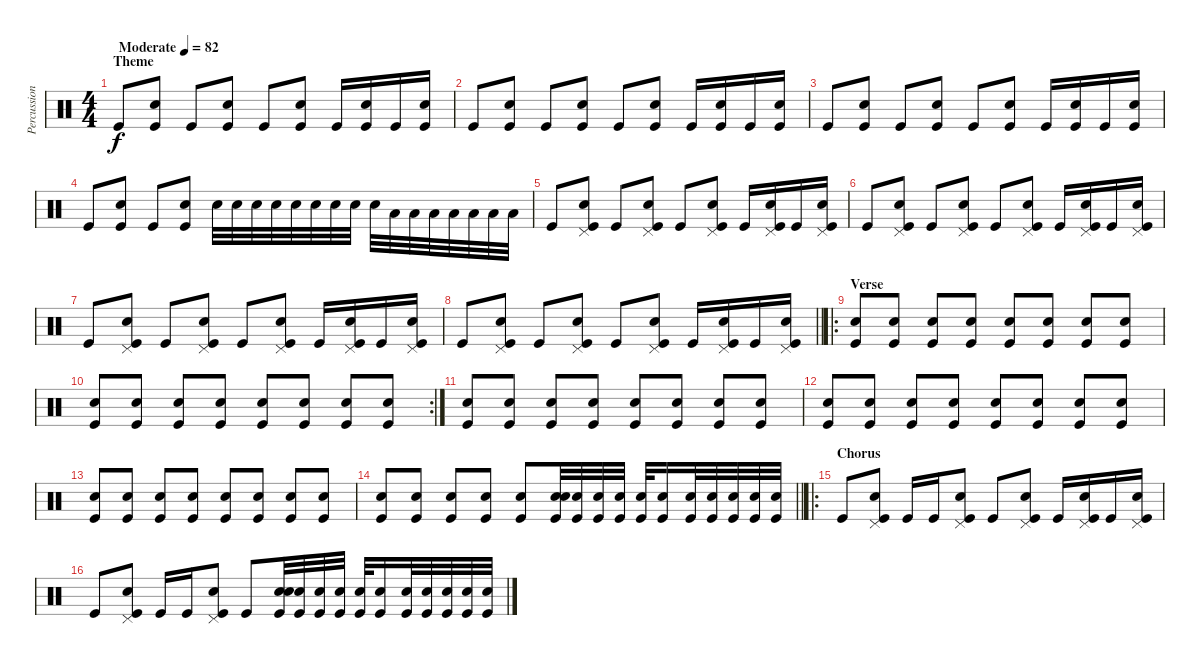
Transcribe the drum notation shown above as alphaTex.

\track ("Percussion" "Percussion") {instrument percussion}
\staff {score}
\articulation defaults
\ts (4 4)
\section ("" "Theme")
\tempo (82 "Moderate")
\clef neutral
\ks c "Kick (hit)".8{dy f}
("Kick (hit)" "Snare (hit) 2").8 "Kick (hit)".8 ("Kick (hit)" "Snare (hit) 2").8 "Kick (hit)".8 ("Kick (hit)" "Snare (hit) 2").8 "Kick (hit)".16 ("Kick (hit)" "Snare (hit) 2").16 "Kick (hit)".16 ("Kick (hit)" "Snare (hit) 2").16 |
"Kick (hit)".8 ("Kick (hit)" "Snare (hit) 2").8 "Kick (hit)".8 ("Kick (hit)" "Snare (hit) 2").8 "Kick (hit)".8 ("Kick (hit)" "Snare (hit) 2").8 "Kick (hit)".16 ("Kick (hit)" "Snare (hit) 2").16 "Kick (hit)".16 ("Kick (hit)" "Snare (hit) 2").16 |
"Kick (hit)".8 ("Kick (hit)" "Snare (hit) 2").8 "Kick (hit)".8 ("Kick (hit)" "Snare (hit) 2").8 "Kick (hit)".8 ("Kick (hit)" "Snare (hit) 2").8 "Kick (hit)".16 ("Kick (hit)" "Snare (hit) 2").16 "Kick (hit)".16 ("Kick (hit)" "Snare (hit) 2").16 |
"Kick (hit)".8 ("Kick (hit)" "Snare (hit) 2").8 "Kick (hit)".8 ("Kick (hit)" "Snare (hit) 2").8 "Snare (hit) 2".32 "Snare (hit) 2".32 "Snare (hit) 2".32 "Snare (hit) 2".32 "Snare (hit) 2".32 "Snare (hit) 2".32 "Snare (hit) 2".32 "Snare (hit) 2".32 "Snare (hit) 2".32 "Low Tom (hit)".32 "Low Tom (hit)".32 "Low Tom (hit)".32 "Low Tom (hit)".32 "Low Tom (hit)".32 "Low Tom (hit)".32 "Low Tom (hit)".32 |
"Kick (hit)".8 ("Pedal Hi-Hat (hit)" "Kick (hit)" "Snare (hit) 2").8 "Kick (hit)".8 ("Pedal Hi-Hat (hit)" "Kick (hit)" "Snare (hit) 2").8 "Kick (hit)".8 ("Pedal Hi-Hat (hit)" "Kick (hit)" "Snare (hit) 2").8 "Kick (hit)".16 ("Pedal Hi-Hat (hit)" "Kick (hit)" "Snare (hit) 2").16 "Kick (hit)".16 ("Pedal Hi-Hat (hit)" "Kick (hit)" "Snare (hit) 2").16 |
"Kick (hit)".8 ("Pedal Hi-Hat (hit)" "Kick (hit)" "Snare (hit) 2").8 "Kick (hit)".8 ("Pedal Hi-Hat (hit)" "Kick (hit)" "Snare (hit) 2").8 "Kick (hit)".8 ("Pedal Hi-Hat (hit)" "Kick (hit)" "Snare (hit) 2").8 "Kick (hit)".16 ("Pedal Hi-Hat (hit)" "Kick (hit)" "Snare (hit) 2").16 "Kick (hit)".16 ("Pedal Hi-Hat (hit)" "Kick (hit)" "Snare (hit) 2").16 |
"Kick (hit)".8 ("Pedal Hi-Hat (hit)" "Kick (hit)" "Snare (hit) 2").8 "Kick (hit)".8 ("Pedal Hi-Hat (hit)" "Kick (hit)" "Snare (hit) 2").8 "Kick (hit)".8 ("Pedal Hi-Hat (hit)" "Kick (hit)" "Snare (hit) 2").8 "Kick (hit)".16 ("Pedal Hi-Hat (hit)" "Kick (hit)" "Snare (hit) 2").16 "Kick (hit)".16 ("Pedal Hi-Hat (hit)" "Kick (hit)" "Snare (hit) 2").16 |
\barLineRight lightlight "Kick (hit)".8
("Pedal Hi-Hat (hit)" "Kick (hit)" "Snare (hit) 2").8 "Kick (hit)".8 ("Pedal Hi-Hat (hit)" "Kick (hit)" "Snare (hit) 2").8 "Kick (hit)".8 ("Pedal Hi-Hat (hit)" "Kick (hit)" "Snare (hit) 2").8 "Kick (hit)".16 ("Pedal Hi-Hat (hit)" "Kick (hit)" "Snare (hit) 2").16 "Kick (hit)".16 ("Pedal Hi-Hat (hit)" "Kick (hit)" "Snare (hit) 2").16 |
\ro
\section ("" "Verse")
("Kick (hit)" "Snare (hit) 2").8 ("Kick (hit)" "Snare (hit) 2").8 ("Kick (hit)" "Snare (hit) 2").8 ("Kick (hit)" "Snare (hit) 2").8 ("Kick (hit)" "Snare (hit) 2").8 ("Kick (hit)" "Snare (hit) 2").8 ("Kick (hit)" "Snare (hit) 2").8 ("Kick (hit)" "Snare (hit) 2").8 |
\rc 2
("Kick (hit)" "Snare (hit) 2").8 ("Kick (hit)" "Snare (hit) 2").8 ("Kick (hit)" "Snare (hit) 2").8 ("Kick (hit)" "Snare (hit) 2").8 ("Kick (hit)" "Snare (hit) 2").8 ("Kick (hit)" "Snare (hit) 2").8 ("Kick (hit)" "Snare (hit) 2").8 ("Kick (hit)" "Snare (hit) 2").8 |
("Kick (hit)" "Snare (hit) 2").8 ("Kick (hit)" "Snare (hit) 2").8 ("Kick (hit)" "Snare (hit) 2").8 ("Kick (hit)" "Snare (hit) 2").8 ("Kick (hit)" "Snare (hit) 2").8 ("Kick (hit)" "Snare (hit) 2").8 ("Kick (hit)" "Snare (hit) 2").8 ("Kick (hit)" "Snare (hit) 2").8 |
("Kick (hit)" "Snare (hit) 2").8 ("Kick (hit)" "Snare (hit) 2").8 ("Kick (hit)" "Snare (hit) 2").8 ("Kick (hit)" "Snare (hit) 2").8 ("Kick (hit)" "Snare (hit) 2").8 ("Kick (hit)" "Snare (hit) 2").8 ("Kick (hit)" "Snare (hit) 2").8 ("Kick (hit)" "Snare (hit) 2").8 |
("Kick (hit)" "Snare (hit) 2").8 ("Kick (hit)" "Snare (hit) 2").8 ("Kick (hit)" "Snare (hit) 2").8 ("Kick (hit)" "Snare (hit) 2").8 ("Kick (hit)" "Snare (hit) 2").8 ("Kick (hit)" "Snare (hit) 2").8 ("Kick (hit)" "Snare (hit) 2").8 ("Kick (hit)" "Snare (hit) 2").8 |
\barLineRight lightlight
("Kick (hit)" "Snare (hit) 2").8 ("Kick (hit)" "Snare (hit) 2").8 ("Kick (hit)" "Snare (hit) 2").8 ("Kick (hit)" "Snare (hit) 2").8 ("Kick (hit)" "Snare (hit) 2").8 ("Snare (hit) 2" "Kick (hit)" "Snare (hit) 2").32{volume 16} ("Snare (hit) 2" "Kick (hit)").32 ("Snare (hit) 2" "Kick (hit)").32 ("Snare (hit) 2" "Kick (hit)").32 ("Snare (hit) 2" "Kick (hit)").32 ("Snare (hit) 2" "Kick (hit)").16 ("Snare (hit) 2" "Kick (hit)").32 ("Snare (hit) 2" "Kick (hit)").32 ("Snare (hit) 2" "Kick (hit)").32 ("Snare (hit) 2" "Kick (hit)").32 ("Snare (hit) 2" "Kick (hit)").32{volume 12} |
\ro
\section ("" "Chorus")
"Kick (hit)".8 ("Pedal Hi-Hat (hit)" "Kick (hit)" "Snare (hit) 2").8 "Kick (hit)".16 "Kick (hit)".16 ("Pedal Hi-Hat (hit)" "Kick (hit)" "Snare (hit) 2").8 "Kick (hit)".8 ("Pedal Hi-Hat (hit)" "Kick (hit)" "Snare (hit) 2").8 "Kick (hit)".16 ("Pedal Hi-Hat (hit)" "Kick (hit)" "Snare (hit) 2").16 "Kick (hit)".16 ("Pedal Hi-Hat (hit)" "Kick (hit)" "Snare (hit) 2").16 |
"Kick (hit)".8 ("Pedal Hi-Hat (hit)" "Kick (hit)" "Snare (hit) 2").8 "Kick (hit)".16 "Kick (hit)".16 ("Pedal Hi-Hat (hit)" "Kick (hit)" "Snare (hit) 2").8 "Kick (hit)".8 ("Snare (hit) 2" "Kick (hit)" "Snare (hit) 2").32{volume 16} ("Snare (hit) 2" "Kick (hit)").32 ("Snare (hit) 2" "Kick (hit)").32 ("Snare (hit) 2" "Kick (hit)").32 ("Snare (hit) 2" "Kick (hit)").32 ("Snare (hit) 2" "Kick (hit)").16 ("Snare (hit) 2" "Kick (hit)").32 ("Snare (hit) 2" "Kick (hit)").32 ("Snare (hit) 2" "Kick (hit)").32 ("Snare (hit) 2" "Kick (hit)").32 ("Snare (hit) 2" "Kick (hit)").32{volume 12}
